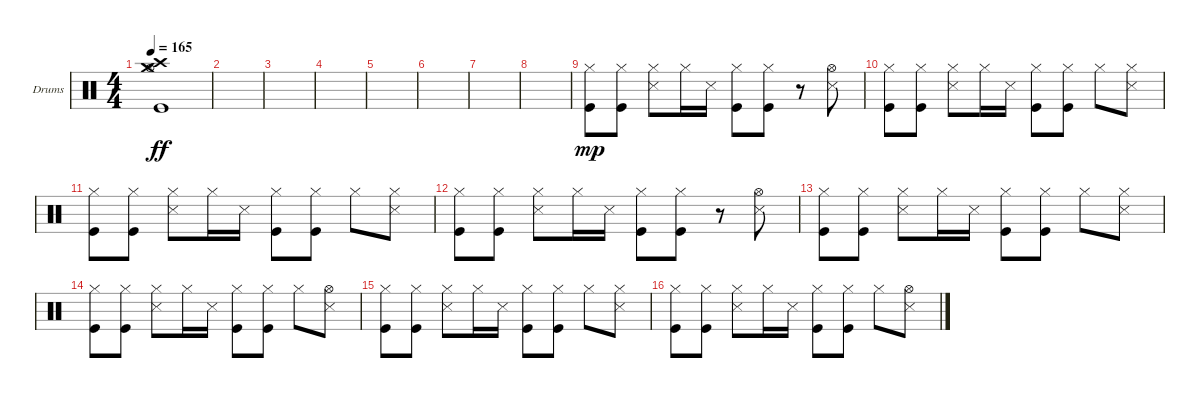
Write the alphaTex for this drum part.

\defaultSystemsLayout 4
\bracketExtendMode groupsimilarinstruments
\firstSystemTrackNameOrientation horizontal
\otherSystemsTrackNameOrientation horizontal
\track ("Drumkit" "Drums") {instrument percussion}
\staff {score}
\articulation defaults
\ts (4 4)
\tempo 165
\clef neutral
\ks c
("Kick (hit)" "Hi-Hat (open)" "Crash high (hit)" "Crash medium (hit)").1{dy ff} |
|
|
|
|
|
|
|
("Hi-Hat (closed)" "Kick (hit)").8{dy mp} ("Hi-Hat (closed)" "Kick (hit)").8 ("Hi-Hat (closed)" "Snare (side stick) 3").8 "Hi-Hat (closed)".16 "Snare (side stick) 3".16 ("Hi-Hat (closed)" "Kick (hit)").8 ("Hi-Hat (closed)" "Kick (hit)").8 r.8 ("Hi-Hat (open)" "Snare (side stick) 3").8 |
("Kick (hit)" "Hi-Hat (closed)").8 ("Hi-Hat (closed)" "Kick (hit)").8 ("Hi-Hat (closed)" "Snare (side stick) 3").8 "Hi-Hat (closed)".16 "Snare (side stick) 3".16 ("Hi-Hat (closed)" "Kick (hit)").8 ("Hi-Hat (closed)" "Kick (hit)").8 "Hi-Hat (closed)".8 ("Hi-Hat (closed)" "Snare (side stick) 3").8 |
("Kick (hit)" "Hi-Hat (closed)").8 ("Hi-Hat (closed)" "Kick (hit)").8 ("Hi-Hat (closed)" "Snare (side stick) 3").8 "Hi-Hat (closed)".16 "Snare (side stick) 3".16 ("Hi-Hat (closed)" "Kick (hit)").8 ("Hi-Hat (closed)" "Kick (hit)").8 "Hi-Hat (closed)".8 ("Hi-Hat (closed)" "Snare (side stick) 3").8 |
("Hi-Hat (closed)" "Kick (hit)").8 ("Hi-Hat (closed)" "Kick (hit)").8 ("Hi-Hat (closed)" "Snare (side stick) 3").8 "Hi-Hat (closed)".16 "Snare (side stick) 3".16 ("Hi-Hat (closed)" "Kick (hit)").8 ("Hi-Hat (closed)" "Kick (hit)").8 r.8 ("Hi-Hat (open)" "Snare (side stick) 3").8 |
("Kick (hit)" "Hi-Hat (closed)").8 ("Hi-Hat (closed)" "Kick (hit)").8 ("Hi-Hat (closed)" "Snare (side stick) 3").8 "Hi-Hat (closed)".16 "Snare (side stick) 3".16 ("Hi-Hat (closed)" "Kick (hit)").8 ("Hi-Hat (closed)" "Kick (hit)").8 "Hi-Hat (closed)".8 ("Hi-Hat (closed)" "Snare (side stick) 3").8 |
("Hi-Hat (closed)" "Kick (hit)").8 ("Hi-Hat (closed)" "Kick (hit)").8 ("Hi-Hat (closed)" "Snare (side stick) 3").8 "Hi-Hat (closed)".16 "Snare (side stick) 3".16 ("Hi-Hat (closed)" "Kick (hit)").8 ("Hi-Hat (closed)" "Kick (hit)").8 "Hi-Hat (closed)".8 ("Hi-Hat (open)" "Snare (side stick) 3").8 |
("Kick (hit)" "Hi-Hat (closed)").8 ("Hi-Hat (closed)" "Kick (hit)").8 ("Hi-Hat (closed)" "Snare (side stick) 3").8 "Hi-Hat (closed)".16 "Snare (side stick) 3".16 ("Hi-Hat (closed)" "Kick (hit)").8 ("Hi-Hat (closed)" "Kick (hit)").8 "Hi-Hat (closed)".8 ("Hi-Hat (closed)" "Snare (side stick) 3").8 |
("Hi-Hat (closed)" "Kick (hit)").8 ("Hi-Hat (closed)" "Kick (hit)").8 ("Hi-Hat (closed)" "Snare (side stick) 3").8 "Hi-Hat (closed)".16 "Snare (side stick) 3".16 ("Hi-Hat (closed)" "Kick (hit)").8 ("Hi-Hat (closed)" "Kick (hit)").8 "Hi-Hat (closed)".8 ("Hi-Hat (open)" "Snare (side stick) 3").8
